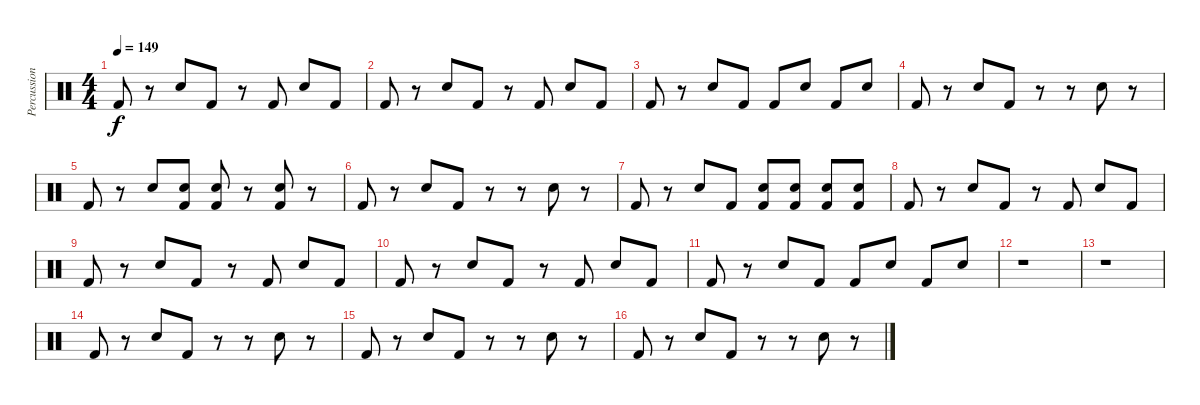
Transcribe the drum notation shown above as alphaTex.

\track ("Percussion" "Percussion") {instrument percussion}
\staff {score}
\articulation defaults
\ts (4 4)
\tempo 149
\clef neutral
\ks c "Kick (hit) 2".8{dy f}
r.8 "Hand Clap (hit)".8 "Kick (hit) 2".8 r.8 "Kick (hit) 2".8 "Hand Clap (hit)".8 "Kick (hit) 2".8 |
"Kick (hit) 2".8 r.8 "Hand Clap (hit)".8 "Kick (hit) 2".8 r.8 "Kick (hit) 2".8 "Hand Clap (hit)".8 "Kick (hit) 2".8 |
"Kick (hit) 2".8 r.8 "Hand Clap (hit)".8 "Kick (hit) 2".8 "Kick (hit) 2".8 "Hand Clap (hit)".8 "Kick (hit) 2".8 "Hand Clap (hit)".8 |
"Kick (hit) 2".8 r.8 "Hand Clap (hit)".8 "Kick (hit) 2".8 r.8 r.8 "Hand Clap (hit)".8 r.8 |
"Kick (hit) 2".8 r.8 "Hand Clap (hit)".8 ("Hand Clap (hit)" "Kick (hit) 2").8 ("Hand Clap (hit)" "Kick (hit) 2").8 r.8 ("Hand Clap (hit)" "Kick (hit) 2").8 r.8 |
"Kick (hit) 2".8 r.8 "Hand Clap (hit)".8 "Kick (hit) 2".8 r.8 r.8 "Hand Clap (hit)".8 r.8 |
"Kick (hit) 2".8 r.8 "Hand Clap (hit)".8 "Kick (hit) 2".8 ("Hand Clap (hit)" "Kick (hit) 2").8 ("Hand Clap (hit)" "Kick (hit) 2").8 ("Hand Clap (hit)" "Kick (hit) 2").8 ("Hand Clap (hit)" "Kick (hit) 2").8 |
"Kick (hit) 2".8 r.8 "Hand Clap (hit)".8 "Kick (hit) 2".8 r.8 "Kick (hit) 2".8 "Hand Clap (hit)".8 "Kick (hit) 2".8 |
"Kick (hit) 2".8 r.8 "Hand Clap (hit)".8 "Kick (hit) 2".8 r.8 "Kick (hit) 2".8 "Hand Clap (hit)".8 "Kick (hit) 2".8 |
"Kick (hit) 2".8 r.8 "Hand Clap (hit)".8 "Kick (hit) 2".8 r.8 "Kick (hit) 2".8 "Hand Clap (hit)".8 "Kick (hit) 2".8 |
"Kick (hit) 2".8 r.8 "Hand Clap (hit)".8 "Kick (hit) 2".8 "Kick (hit) 2".8 "Hand Clap (hit)".8 "Kick (hit) 2".8 "Hand Clap (hit)".8 |
r.1 |
r.1 |
"Kick (hit) 2".8 r.8 "Hand Clap (hit)".8 "Kick (hit) 2".8 r.8 r.8 "Hand Clap (hit)".8 r.8 |
"Kick (hit) 2".8 r.8 "Hand Clap (hit)".8 "Kick (hit) 2".8 r.8 r.8 "Hand Clap (hit)".8 r.8 |
"Kick (hit) 2".8 r.8 "Hand Clap (hit)".8 "Kick (hit) 2".8 r.8 r.8 "Hand Clap (hit)".8 r.8
